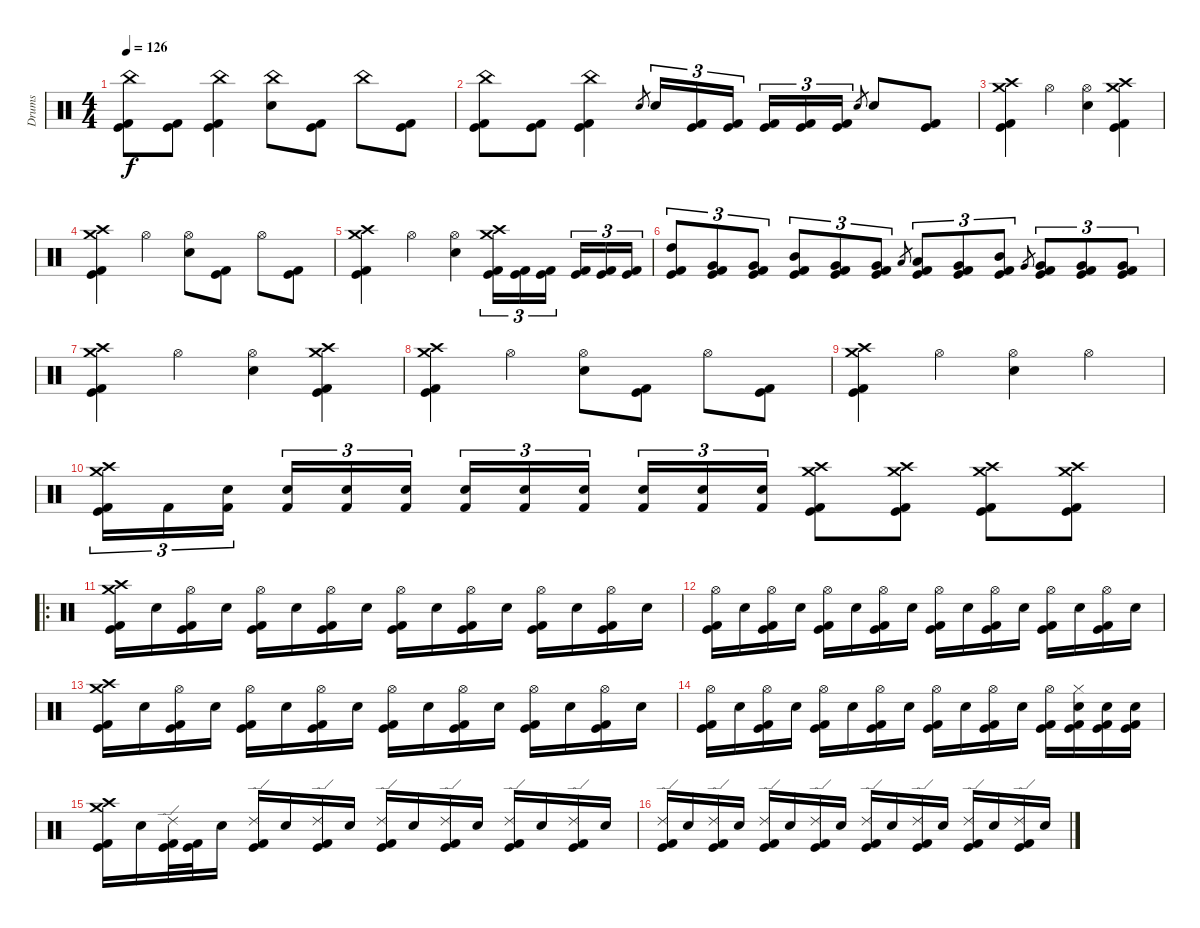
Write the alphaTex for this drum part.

\track ("Drums" "Drums") {instrument percussion}
\staff {score}
\articulation defaults
\ts (4 4)
\tempo 126
\clef neutral
\ks c
("China (hit)" "Kick (hit)" "Kick (hit) 2").8{dy f} ("Kick (hit)" "Kick (hit) 2").8 ("China (hit)" "Kick (hit)" "Kick (hit) 2").4 ("China (hit)" "Electric Snare (hit)").8 ("Kick (hit)" "Kick (hit) 2").8 "China (hit)".8 ("Kick (hit)" "Kick (hit) 2").8 |
("China (hit)" "Kick (hit)" "Kick (hit) 2").8 ("Kick (hit)" "Kick (hit) 2").8 ("China (hit)" "Kick (hit)" "Kick (hit) 2").4 "Electric Snare (hit)".8{gr} "Electric Snare (hit)".16{tu (3 2)} ("Kick (hit)" "Kick (hit) 2").16{tu (3 2)} ("Kick (hit)" "Kick (hit) 2").16{tu (3 2)} ("Kick (hit)" "Kick (hit) 2").16{tu (3 2)} ("Kick (hit)" "Kick (hit) 2").16{tu (3 2)} ("Kick (hit)" "Kick (hit) 2").16{tu (3 2)} "Electric Snare (hit)".8{gr} "Electric Snare (hit)".8 ("Kick (hit)" "Kick (hit) 2").8 |
("Crash medium (hit)" "Crash high (hit)" "Kick (hit)" "Kick (hit) 2").4 "Hi-Hat (open)".4 ("Hi-Hat (open)" "Electric Snare (hit)").4 ("Crash medium (hit)" "Crash high (hit)" "Kick (hit)" "Kick (hit) 2").4 |
("Crash medium (hit)" "Crash high (hit)" "Kick (hit)" "Kick (hit) 2").4 "Hi-Hat (open)".4 ("Hi-Hat (open)" "Electric Snare (hit)").8 ("Kick (hit)" "Kick (hit) 2").8 "Hi-Hat (open)".8 ("Kick (hit)" "Kick (hit) 2").8 |
("Crash medium (hit)" "Crash high (hit)" "Kick (hit)" "Kick (hit) 2").4 "Hi-Hat (open)".4 ("Hi-Hat (open)" "Electric Snare (hit)").4 ("Crash medium (hit)" "Crash high (hit)" "Kick (hit)" "Kick (hit) 2").16{tu (3 2)} ("Kick (hit)" "Kick (hit) 2").16{tu (3 2)} ("Kick (hit)" "Kick (hit) 2").16{tu (3 2)} ("Kick (hit)" "Kick (hit) 2").16{tu (3 2)} ("Kick (hit)" "Kick (hit) 2").16{tu (3 2)} ("Kick (hit)" "Kick (hit) 2").16{tu (3 2)} |
("High Tom (hit)" "Kick (hit)" "Kick (hit) 2").8{tu (3 2)} ("Very Low Tom (hit)" "Kick (hit)" "Kick (hit) 2").8{tu (3 2)} ("Very Low Tom (hit)" "Kick (hit)" "Kick (hit) 2").8{tu (3 2)} ("Mid Tom (hit)" "Kick (hit)" "Kick (hit) 2").8{tu (3 2)} ("Very Low Tom (hit)" "Kick (hit)" "Kick (hit) 2").8{tu (3 2)} ("Very Low Tom (hit)" "Kick (hit)" "Kick (hit) 2").8{tu (3 2)} "Low Tom (hit)".8{gr} ("Low Tom (hit)" "Kick (hit)" "Kick (hit) 2").8{tu (3 2)} ("Very Low Tom (hit)" "Kick (hit)" "Kick (hit) 2").8{tu (3 2)} ("Mid Tom (hit)" "Kick (hit)" "Kick (hit) 2").8{tu (3 2)} "Very Low Tom (hit)".8{gr} ("Very Low Tom (hit)" "Kick (hit)" "Kick (hit) 2").8{tu (3 2)} ("Very Low Tom (hit)" "Kick (hit)" "Kick (hit) 2").8{tu (3 2)} ("Very Low Tom (hit)" "Kick (hit)" "Kick (hit) 2").8{tu (3 2)} |
("Crash medium (hit)" "Crash high (hit)" "Kick (hit)" "Kick (hit) 2").4 "Hi-Hat (open)".4 ("Hi-Hat (open)" "Electric Snare (hit)").4 ("Crash medium (hit)" "Crash high (hit)" "Kick (hit)" "Kick (hit) 2").4 |
("Crash medium (hit)" "Crash high (hit)" "Kick (hit)" "Kick (hit) 2").4 "Hi-Hat (open)".4 ("Hi-Hat (open)" "Electric Snare (hit)").8 ("Kick (hit)" "Kick (hit) 2").8 "Hi-Hat (open)".8 ("Kick (hit)" "Kick (hit) 2").8 |
("Crash medium (hit)" "Crash high (hit)" "Kick (hit)" "Kick (hit) 2").4 "Hi-Hat (open)".4 ("Hi-Hat (open)" "Electric Snare (hit)").4 "Hi-Hat (open)".4 |
("Crash medium (hit)" "Crash high (hit)" "Kick (hit)" "Kick (hit) 2").16{tu (3 2)} "Kick (hit) 2".16{tu (3 2)} ("Electric Snare (hit)" "Kick (hit) 2").16{tu (3 2)} ("Electric Snare (hit)" "Kick (hit) 2").16{tu (3 2)} ("Electric Snare (hit)" "Kick (hit) 2").16{tu (3 2)} ("Electric Snare (hit)" "Kick (hit) 2").16{tu (3 2)} ("Electric Snare (hit)" "Kick (hit) 2").16{tu (3 2)} ("Electric Snare (hit)" "Kick (hit) 2").16{tu (3 2)} ("Electric Snare (hit)" "Kick (hit) 2").16{tu (3 2)} ("Electric Snare (hit)" "Kick (hit) 2").16{tu (3 2)} ("Electric Snare (hit)" "Kick (hit) 2").16{tu (3 2)} ("Electric Snare (hit)" "Kick (hit) 2").16{tu (3 2)} ("Crash medium (hit)" "Crash high (hit)" "Kick (hit)" "Kick (hit) 2").8 ("Crash medium (hit)" "Crash high (hit)" "Kick (hit)" "Kick (hit) 2").8 ("Crash medium (hit)" "Crash high (hit)" "Kick (hit)" "Kick (hit) 2").8 ("Crash medium (hit)" "Crash high (hit)" "Kick (hit)" "Kick (hit) 2").8 |
\ro
("Crash medium (hit)" "Crash high (hit)" "Kick (hit)" "Kick (hit) 2").16 "Electric Snare (hit)".16 ("Hi-Hat (open)" "Kick (hit)" "Kick (hit) 2").16 "Electric Snare (hit)".16 ("Hi-Hat (open)" "Kick (hit)" "Kick (hit) 2").16 "Electric Snare (hit)".16 ("Hi-Hat (open)" "Kick (hit)" "Kick (hit) 2").16 "Electric Snare (hit)".16 ("Hi-Hat (open)" "Kick (hit)" "Kick (hit) 2").16 "Electric Snare (hit)".16 ("Hi-Hat (open)" "Kick (hit)" "Kick (hit) 2").16 "Electric Snare (hit)".16 ("Hi-Hat (open)" "Kick (hit)" "Kick (hit) 2").16 "Electric Snare (hit)".16 ("Hi-Hat (open)" "Kick (hit)" "Kick (hit) 2").16 "Electric Snare (hit)".16 |
("Hi-Hat (open)" "Kick (hit)" "Kick (hit) 2").16 "Electric Snare (hit)".16 ("Hi-Hat (open)" "Kick (hit)" "Kick (hit) 2").16 "Electric Snare (hit)".16 ("Hi-Hat (open)" "Kick (hit)" "Kick (hit) 2").16 "Electric Snare (hit)".16 ("Hi-Hat (open)" "Kick (hit)" "Kick (hit) 2").16 "Electric Snare (hit)".16 ("Hi-Hat (open)" "Kick (hit)" "Kick (hit) 2").16 "Electric Snare (hit)".16 ("Hi-Hat (open)" "Kick (hit)" "Kick (hit) 2").16 "Electric Snare (hit)".16 ("Hi-Hat (open)" "Kick (hit)" "Kick (hit) 2").16 "Electric Snare (hit)".16 ("Hi-Hat (open)" "Kick (hit)" "Kick (hit) 2").16 "Electric Snare (hit)".16 |
("Crash medium (hit)" "Crash high (hit)" "Kick (hit)" "Kick (hit) 2").16 "Electric Snare (hit)".16 ("Hi-Hat (open)" "Kick (hit)" "Kick (hit) 2").16 "Electric Snare (hit)".16 ("Hi-Hat (open)" "Kick (hit)" "Kick (hit) 2").16 "Electric Snare (hit)".16 ("Hi-Hat (open)" "Kick (hit)" "Kick (hit) 2").16 "Electric Snare (hit)".16 ("Hi-Hat (open)" "Kick (hit)" "Kick (hit) 2").16 "Electric Snare (hit)".16 ("Hi-Hat (open)" "Kick (hit)" "Kick (hit) 2").16 "Electric Snare (hit)".16 ("Hi-Hat (open)" "Kick (hit)" "Kick (hit) 2").16 "Electric Snare (hit)".16 ("Hi-Hat (open)" "Kick (hit)" "Kick (hit) 2").16 "Electric Snare (hit)".16 |
("Hi-Hat (open)" "Kick (hit)" "Kick (hit) 2").16 "Electric Snare (hit)".16 ("Hi-Hat (open)" "Kick (hit)" "Kick (hit) 2").16 "Electric Snare (hit)".16 ("Hi-Hat (open)" "Kick (hit)" "Kick (hit) 2").16 "Electric Snare (hit)".16 ("Hi-Hat (open)" "Kick (hit)" "Kick (hit) 2").16 "Electric Snare (hit)".16 ("Hi-Hat (open)" "Kick (hit)" "Kick (hit) 2").16 "Electric Snare (hit)".16 ("Hi-Hat (open)" "Kick (hit)" "Kick (hit) 2").16 "Electric Snare (hit)".16 ("Hi-Hat (open)" "Kick (hit)" "Kick (hit) 2").16 ("Hi-Hat (closed)" "Electric Snare (hit)" "Kick (hit)" "Kick (hit) 2").16 ("Electric Snare (hit)" "Kick (hit)" "Kick (hit) 2").16 ("Electric Snare (hit)" "Kick (hit)" "Kick (hit) 2").16 |
("Crash medium (hit)" "Crash high (hit)" "Kick (hit)" "Kick (hit) 2").16 "Electric Snare (hit)".16 ("Ride (edge) 2" "Kick (hit)" "Kick (hit) 2").32 ("Kick (hit)" "Kick (hit) 2").32 "Electric Snare (hit)".16 ("Ride (edge) 2" "Kick (hit)" "Kick (hit) 2").16 "Electric Snare (hit)".16 ("Ride (edge) 2" "Kick (hit)" "Kick (hit) 2").16 "Electric Snare (hit)".16 ("Ride (edge) 2" "Kick (hit)" "Kick (hit) 2").16 "Electric Snare (hit)".16 ("Ride (edge) 2" "Kick (hit)" "Kick (hit) 2").16 "Electric Snare (hit)".16 ("Ride (edge) 2" "Kick (hit)" "Kick (hit) 2").16 "Electric Snare (hit)".16 ("Ride (edge) 2" "Kick (hit)" "Kick (hit) 2").16 "Electric Snare (hit)".16 |
("Ride (edge) 2" "Kick (hit)" "Kick (hit) 2").16 "Electric Snare (hit)".16 ("Ride (edge) 2" "Kick (hit)" "Kick (hit) 2").16 "Electric Snare (hit)".16 ("Ride (edge) 2" "Kick (hit)" "Kick (hit) 2").16 "Electric Snare (hit)".16 ("Ride (edge) 2" "Kick (hit)" "Kick (hit) 2").16 "Electric Snare (hit)".16 ("Ride (edge) 2" "Kick (hit)" "Kick (hit) 2").16 "Electric Snare (hit)".16 ("Ride (edge) 2" "Kick (hit)" "Kick (hit) 2").16 "Electric Snare (hit)".16 ("Ride (edge) 2" "Kick (hit)" "Kick (hit) 2").16 "Electric Snare (hit)".16 ("Ride (edge) 2" "Kick (hit)" "Kick (hit) 2").16 "Electric Snare (hit)".16
